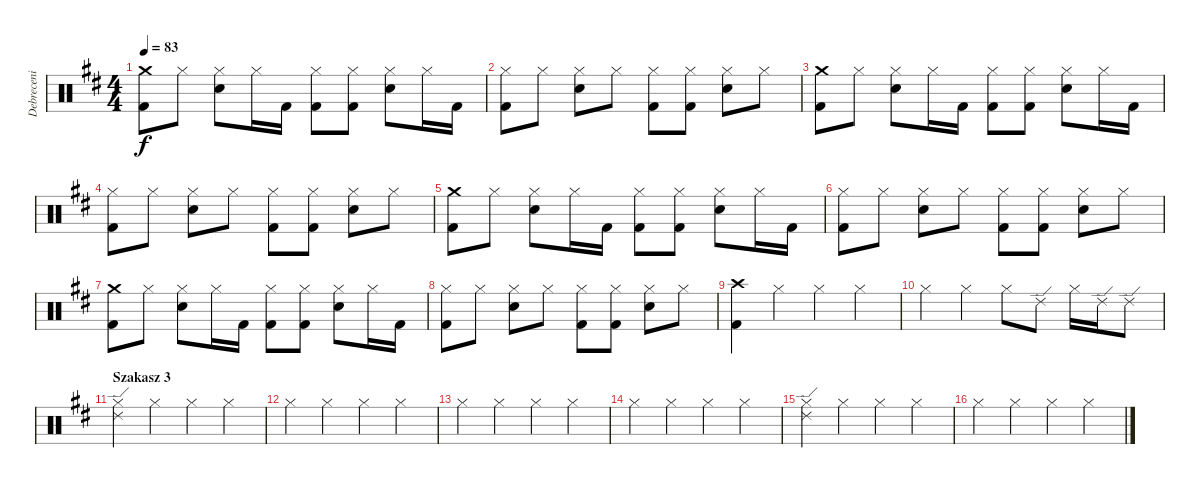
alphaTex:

\track ("Debreceni Ferenc \"Ciki\" Dob" "Debreceni ") {instrument percussion}
\staff {score}
\articulation defaults
\ts (4 4)
\tempo 83
\clef neutral
\ks d
("Crash medium (hit)" "Kick (hit) 2").8{dy f} "Hi-Hat (closed)".8 ("Hi-Hat (closed)" "Snare (hit) 2").8 "Hi-Hat (closed)".16 "Kick (hit) 2".16 ("Hi-Hat (closed)" "Kick (hit) 2").8 ("Hi-Hat (closed)" "Kick (hit) 2").8 ("Hi-Hat (closed)" "Snare (hit) 2").8 "Hi-Hat (closed)".16 "Kick (hit) 2".16 |
("Hi-Hat (closed)" "Kick (hit) 2").8 "Hi-Hat (closed)".8 ("Hi-Hat (closed)" "Snare (hit) 2").8 "Hi-Hat (closed)".8 ("Hi-Hat (closed)" "Kick (hit) 2").8 ("Hi-Hat (closed)" "Kick (hit) 2").8 ("Hi-Hat (closed)" "Snare (hit) 2").8 "Hi-Hat (closed)".8 |
("Crash medium (hit)" "Kick (hit) 2").8 "Hi-Hat (closed)".8 ("Hi-Hat (closed)" "Snare (hit) 2").8 "Hi-Hat (closed)".16 "Kick (hit) 2".16 ("Hi-Hat (closed)" "Kick (hit) 2").8 ("Hi-Hat (closed)" "Kick (hit) 2").8 ("Hi-Hat (closed)" "Snare (hit) 2").8 "Hi-Hat (closed)".16 "Kick (hit) 2".16 |
("Hi-Hat (closed)" "Kick (hit) 2").8 "Hi-Hat (closed)".8 ("Hi-Hat (closed)" "Snare (hit) 2").8 "Hi-Hat (closed)".8 ("Hi-Hat (closed)" "Kick (hit) 2").8 ("Hi-Hat (closed)" "Kick (hit) 2").8 ("Hi-Hat (closed)" "Snare (hit) 2").8 "Hi-Hat (closed)".8 |
("Crash medium (hit)" "Kick (hit) 2").8 "Hi-Hat (closed)".8 ("Hi-Hat (closed)" "Snare (hit) 2").8 "Hi-Hat (closed)".16 "Kick (hit) 2".16 ("Hi-Hat (closed)" "Kick (hit) 2").8 ("Hi-Hat (closed)" "Kick (hit) 2").8 ("Hi-Hat (closed)" "Snare (hit) 2").8 "Hi-Hat (closed)".16 "Kick (hit) 2".16 |
("Hi-Hat (closed)" "Kick (hit) 2").8 "Hi-Hat (closed)".8 ("Hi-Hat (closed)" "Snare (hit) 2").8 "Hi-Hat (closed)".8 ("Hi-Hat (closed)" "Kick (hit) 2").8 ("Hi-Hat (closed)" "Kick (hit) 2").8 ("Hi-Hat (closed)" "Snare (hit) 2").8 "Hi-Hat (closed)".8 |
("Crash medium (hit)" "Kick (hit) 2").8 "Hi-Hat (closed)".8 ("Hi-Hat (closed)" "Snare (hit) 2").8 "Hi-Hat (closed)".16 "Kick (hit) 2".16 ("Hi-Hat (closed)" "Kick (hit) 2").8 ("Hi-Hat (closed)" "Kick (hit) 2").8 ("Hi-Hat (closed)" "Snare (hit) 2").8 "Hi-Hat (closed)".16 "Kick (hit) 2".16 |
("Hi-Hat (closed)" "Kick (hit) 2").8 "Hi-Hat (closed)".8 ("Hi-Hat (closed)" "Snare (hit) 2").8 "Hi-Hat (closed)".8 ("Hi-Hat (closed)" "Kick (hit) 2").8 ("Hi-Hat (closed)" "Kick (hit) 2").8 ("Hi-Hat (closed)" "Snare (hit) 2").8 "Hi-Hat (closed)".8 |
("Crash high (hit)" "Kick (hit) 2").4 "Hi-Hat (closed)".4 "Hi-Hat (closed)".4 "Hi-Hat (closed)".4 |
"Hi-Hat (closed)".4 "Hi-Hat (closed)".4 "Hi-Hat (closed)".8 "Ride (edge) 2".8 "Hi-Hat (closed)".16 "Ride (edge) 2".16 "Ride (edge) 2".8 |
\section ("" "Szakasz 3")
("Ride (edge) 2" "Hi-Hat (closed)").4 "Hi-Hat (closed)".4 "Hi-Hat (closed)".4 "Hi-Hat (closed)".4 |
"Hi-Hat (closed)".4 "Hi-Hat (closed)".4 "Hi-Hat (closed)".4 "Hi-Hat (closed)".4 |
"Hi-Hat (closed)".4 "Hi-Hat (closed)".4 "Hi-Hat (closed)".4 "Hi-Hat (closed)".4 |
"Hi-Hat (closed)".4 "Hi-Hat (closed)".4 "Hi-Hat (closed)".4 "Hi-Hat (closed)".4 |
("Ride (edge) 2" "Hi-Hat (closed)").4 "Hi-Hat (closed)".4 "Hi-Hat (closed)".4 "Hi-Hat (closed)".4 |
"Hi-Hat (closed)".4 "Hi-Hat (closed)".4 "Hi-Hat (closed)".4 "Hi-Hat (closed)".4
